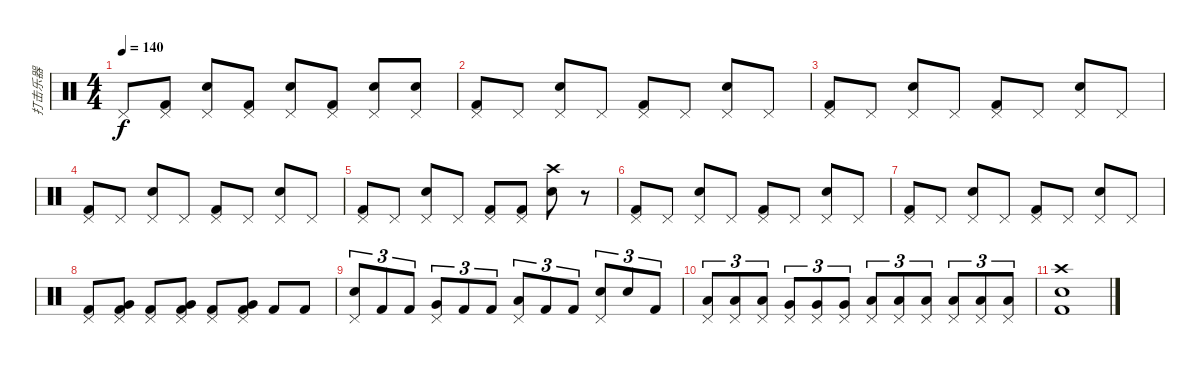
\track ("打击乐器" "打击乐器") {instrument percussion}
\staff {score}
\articulation defaults
\ts (4 4)
\tempo 140
\clef neutral
\ks c "Pedal Hi-Hat (hit)".8{dy f}
("Pedal Hi-Hat (hit)" "Kick (hit) 2").8 ("Pedal Hi-Hat (hit)" "Electric Snare (hit)").8 ("Pedal Hi-Hat (hit)" "Kick (hit) 2").8 ("Pedal Hi-Hat (hit)" "Electric Snare (hit)").8 ("Pedal Hi-Hat (hit)" "Kick (hit) 2").8 ("Pedal Hi-Hat (hit)" "Electric Snare (hit)").8 ("Pedal Hi-Hat (hit)" "Electric Snare (hit)").8 |
("Pedal Hi-Hat (hit)" "Kick (hit) 2").8 "Pedal Hi-Hat (hit)".8 ("Pedal Hi-Hat (hit)" "Electric Snare (hit)").8 "Pedal Hi-Hat (hit)".8 ("Pedal Hi-Hat (hit)" "Kick (hit) 2").8 "Pedal Hi-Hat (hit)".8 ("Pedal Hi-Hat (hit)" "Electric Snare (hit)").8 "Pedal Hi-Hat (hit)".8 |
("Pedal Hi-Hat (hit)" "Kick (hit) 2").8 "Pedal Hi-Hat (hit)".8 ("Pedal Hi-Hat (hit)" "Electric Snare (hit)").8 "Pedal Hi-Hat (hit)".8 ("Pedal Hi-Hat (hit)" "Kick (hit) 2").8 "Pedal Hi-Hat (hit)".8 ("Pedal Hi-Hat (hit)" "Electric Snare (hit)").8 "Pedal Hi-Hat (hit)".8 |
("Pedal Hi-Hat (hit)" "Kick (hit) 2").8 "Pedal Hi-Hat (hit)".8 ("Pedal Hi-Hat (hit)" "Electric Snare (hit)").8 "Pedal Hi-Hat (hit)".8 ("Pedal Hi-Hat (hit)" "Kick (hit) 2").8 "Pedal Hi-Hat (hit)".8 ("Pedal Hi-Hat (hit)" "Electric Snare (hit)").8 "Pedal Hi-Hat (hit)".8 |
("Pedal Hi-Hat (hit)" "Kick (hit) 2").8 "Pedal Hi-Hat (hit)".8 ("Pedal Hi-Hat (hit)" "Electric Snare (hit)").8 "Pedal Hi-Hat (hit)".8 ("Pedal Hi-Hat (hit)" "Kick (hit) 2").8 ("Pedal Hi-Hat (hit)" "Kick (hit) 2").8 ("Crash high (hit)" "Electric Snare (hit)").8 r.8 |
("Pedal Hi-Hat (hit)" "Kick (hit) 2").8 "Pedal Hi-Hat (hit)".8 ("Pedal Hi-Hat (hit)" "Electric Snare (hit)").8 "Pedal Hi-Hat (hit)".8 ("Pedal Hi-Hat (hit)" "Kick (hit) 2").8 "Pedal Hi-Hat (hit)".8 ("Pedal Hi-Hat (hit)" "Electric Snare (hit)").8 "Pedal Hi-Hat (hit)".8 |
("Pedal Hi-Hat (hit)" "Kick (hit) 2").8 "Pedal Hi-Hat (hit)".8 ("Pedal Hi-Hat (hit)" "Electric Snare (hit)").8 "Pedal Hi-Hat (hit)".8 ("Pedal Hi-Hat (hit)" "Kick (hit) 2").8 "Pedal Hi-Hat (hit)".8 ("Pedal Hi-Hat (hit)" "Electric Snare (hit)").8 "Pedal Hi-Hat (hit)".8 |
("Pedal Hi-Hat (hit)" "Kick (hit) 2").8 ("Pedal Hi-Hat (hit)" "Very Low Tom (hit)" "Kick (hit) 2").8 ("Pedal Hi-Hat (hit)" "Kick (hit) 2").8 ("Pedal Hi-Hat (hit)" "Very Low Tom (hit)" "Kick (hit) 2").8 ("Pedal Hi-Hat (hit)" "Kick (hit) 2").8 ("Pedal Hi-Hat (hit)" "Very Low Tom (hit)" "Kick (hit) 2").8 "Kick (hit) 2".8 "Kick (hit) 2".8 |
("Pedal Hi-Hat (hit)" "Electric Snare (hit)").8{tu (3 2)} "Kick (hit) 2".8{tu (3 2)} "Kick (hit) 2".8{tu (3 2)} ("Pedal Hi-Hat (hit)" "Very Low Tom (hit)").8{tu (3 2)} "Kick (hit) 2".8{tu (3 2)} "Kick (hit) 2".8{tu (3 2)} ("Pedal Hi-Hat (hit)" "Low Floor Tom (hit)").8{tu (3 2)} "Kick (hit) 2".8{tu (3 2)} "Kick (hit) 2".8{tu (3 2)} ("Pedal Hi-Hat (hit)" "Electric Snare (hit)").8{tu (3 2)} "Electric Snare (hit)".8{tu (3 2)} "Kick (hit) 2".8{tu (3 2)} |
("Pedal Hi-Hat (hit)" "Low Tom (hit)").8{tu (3 2)} ("Pedal Hi-Hat (hit)" "Low Tom (hit)").8{tu (3 2)} ("Pedal Hi-Hat (hit)" "Low Tom (hit)").8{tu (3 2)} ("Pedal Hi-Hat (hit)" "Very Low Tom (hit)").8{tu (3 2)} ("Pedal Hi-Hat (hit)" "Very Low Tom (hit)").8{tu (3 2)} ("Pedal Hi-Hat (hit)" "Very Low Tom (hit)").8{tu (3 2)} ("Pedal Hi-Hat (hit)" "Low Floor Tom (hit)").8{tu (3 2)} ("Pedal Hi-Hat (hit)" "Low Floor Tom (hit)").8{tu (3 2)} ("Pedal Hi-Hat (hit)" "Low Floor Tom (hit)").8{tu (3 2)} ("Pedal Hi-Hat (hit)" "Low Floor Tom (hit)").8{tu (3 2)} ("Pedal Hi-Hat (hit)" "Low Floor Tom (hit)").8{tu (3 2)} ("Pedal Hi-Hat (hit)" "Low Floor Tom (hit)").8{tu (3 2)} |
("Crash high (hit)" "Electric Snare (hit)" "Kick (hit) 2").1
